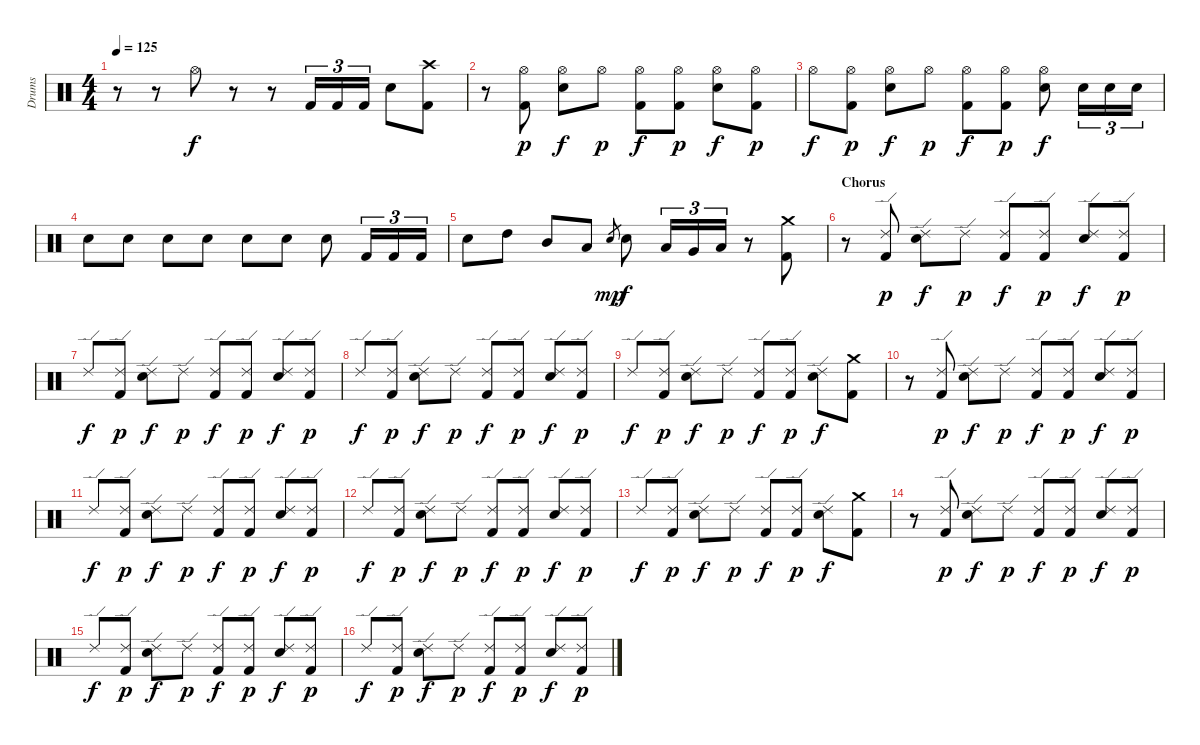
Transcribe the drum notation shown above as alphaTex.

\track ("Drums" "Drums") {instrument percussion}
\staff {score}
\articulation defaults
\ts (4 4)
\tempo 125
\clef neutral
\ks c
r.8{dy f} r.8 "Hi-Hat (open)".8 r.8 r.8 "Kick (hit) 2".16{tu (3 2)} "Kick (hit) 2".16{tu (3 2)} "Kick (hit) 2".16{tu (3 2)} "Snare (hit) 2".8 ("Crash high (hit)" "Kick (hit) 2").8 |
r.8 ("Hi-Hat (open)" "Kick (hit) 2").8{dy p} ("Hi-Hat (open)" "Snare (hit) 2").8{dy f} "Hi-Hat (open)".8{dy p} ("Hi-Hat (open)" "Kick (hit) 2").8{dy f} ("Hi-Hat (open)" "Kick (hit) 2").8{dy p} ("Hi-Hat (open)" "Snare (hit) 2").8{dy f} ("Hi-Hat (open)" "Kick (hit) 2").8{dy p} |
"Hi-Hat (open)".8{dy f} ("Hi-Hat (open)" "Kick (hit) 2").8{dy p} ("Hi-Hat (open)" "Snare (hit) 2").8{dy f} "Hi-Hat (open)".8{dy p} ("Hi-Hat (open)" "Kick (hit) 2").8{dy f} ("Hi-Hat (open)" "Kick (hit) 2").8{dy p} ("Hi-Hat (open)" "Snare (hit) 2").8{dy f} "Snare (hit) 2".16{tu (3 2)} "Snare (hit) 2".16{tu (3 2)} "Snare (hit) 2".16{tu (3 2)} |
"Snare (hit) 2".8 "Snare (hit) 2".8 "Snare (hit) 2".8 "Snare (hit) 2".8 "Snare (hit) 2".8 "Snare (hit) 2".8 "Snare (hit) 2".8 "Kick (hit) 2".16{tu (3 2)} "Kick (hit) 2".16{tu (3 2)} "Kick (hit) 2".16{tu (3 2)} |
"Snare (hit) 2".8 "High Tom (hit)".8 "Mid Tom (hit)".8 "Low Tom (hit)".8 "Snare (hit) 2".8{gr dy mp} "Snare (hit) 2".8{dy f} "Low Tom (hit)".16{tu (3 2)} "Very Low Tom (hit)".16{tu (3 2)} "Low Floor Tom (hit)".16{tu (3 2)} r.8 ("Crash medium (hit)" "Kick (hit) 2").8 |
\section ("" "Chorus")
r.8 ("Ride (edge) 2" "Kick (hit) 2").8{dy p} ("Ride (edge) 2" "Snare (hit) 2").8{dy f} "Ride (edge) 2".8{dy p} ("Ride (edge) 2" "Kick (hit) 2").8{dy f} ("Ride (edge) 2" "Kick (hit) 2").8{dy p} ("Ride (edge) 2" "Snare (hit) 2").8{dy f} ("Ride (edge) 2" "Kick (hit) 2").8{dy p} |
"Ride (edge) 2".8{dy f} ("Ride (edge) 2" "Kick (hit) 2").8{dy p} ("Ride (edge) 2" "Snare (hit) 2").8{dy f} "Ride (edge) 2".8{dy p} ("Ride (edge) 2" "Kick (hit) 2").8{dy f} ("Ride (edge) 2" "Kick (hit) 2").8{dy p} ("Ride (edge) 2" "Snare (hit) 2").8{dy f} ("Ride (edge) 2" "Kick (hit) 2").8{dy p} |
"Ride (edge) 2".8{dy f} ("Ride (edge) 2" "Kick (hit) 2").8{dy p} ("Ride (edge) 2" "Snare (hit) 2").8{dy f} "Ride (edge) 2".8{dy p} ("Ride (edge) 2" "Kick (hit) 2").8{dy f} ("Ride (edge) 2" "Kick (hit) 2").8{dy p} ("Ride (edge) 2" "Snare (hit) 2").8{dy f} ("Ride (edge) 2" "Kick (hit) 2").8{dy p} |
"Ride (edge) 2".8{dy f} ("Ride (edge) 2" "Kick (hit) 2").8{dy p} ("Ride (edge) 2" "Snare (hit) 2").8{dy f} "Ride (edge) 2".8{dy p} ("Ride (edge) 2" "Kick (hit) 2").8{dy f} ("Ride (edge) 2" "Kick (hit) 2").8{dy p} ("Ride (edge) 2" "Snare (hit) 2").8{dy f} ("Crash medium (hit)" "Kick (hit) 2").8 |
r.8 ("Ride (edge) 2" "Kick (hit) 2").8{dy p} ("Ride (edge) 2" "Snare (hit) 2").8{dy f} "Ride (edge) 2".8{dy p} ("Ride (edge) 2" "Kick (hit) 2").8{dy f} ("Ride (edge) 2" "Kick (hit) 2").8{dy p} ("Ride (edge) 2" "Snare (hit) 2").8{dy f} ("Ride (edge) 2" "Kick (hit) 2").8{dy p} |
"Ride (edge) 2".8{dy f} ("Ride (edge) 2" "Kick (hit) 2").8{dy p} ("Ride (edge) 2" "Snare (hit) 2").8{dy f} "Ride (edge) 2".8{dy p} ("Ride (edge) 2" "Kick (hit) 2").8{dy f} ("Ride (edge) 2" "Kick (hit) 2").8{dy p} ("Ride (edge) 2" "Snare (hit) 2").8{dy f} ("Ride (edge) 2" "Kick (hit) 2").8{dy p} |
"Ride (edge) 2".8{dy f} ("Ride (edge) 2" "Kick (hit) 2").8{dy p} ("Ride (edge) 2" "Snare (hit) 2").8{dy f} "Ride (edge) 2".8{dy p} ("Ride (edge) 2" "Kick (hit) 2").8{dy f} ("Ride (edge) 2" "Kick (hit) 2").8{dy p} ("Ride (edge) 2" "Snare (hit) 2").8{dy f} ("Ride (edge) 2" "Kick (hit) 2").8{dy p} |
"Ride (edge) 2".8{dy f} ("Ride (edge) 2" "Kick (hit) 2").8{dy p} ("Ride (edge) 2" "Snare (hit) 2").8{dy f} "Ride (edge) 2".8{dy p} ("Ride (edge) 2" "Kick (hit) 2").8{dy f} ("Ride (edge) 2" "Kick (hit) 2").8{dy p} ("Ride (edge) 2" "Snare (hit) 2").8{dy f} ("Crash medium (hit)" "Kick (hit) 2").8 |
r.8 ("Ride (edge) 2" "Kick (hit) 2").8{dy p} ("Ride (edge) 2" "Snare (hit) 2").8{dy f} "Ride (edge) 2".8{dy p} ("Ride (edge) 2" "Kick (hit) 2").8{dy f} ("Ride (edge) 2" "Kick (hit) 2").8{dy p} ("Ride (edge) 2" "Snare (hit) 2").8{dy f} ("Ride (edge) 2" "Kick (hit) 2").8{dy p} |
"Ride (edge) 2".8{dy f} ("Ride (edge) 2" "Kick (hit) 2").8{dy p} ("Ride (edge) 2" "Snare (hit) 2").8{dy f} "Ride (edge) 2".8{dy p} ("Ride (edge) 2" "Kick (hit) 2").8{dy f} ("Ride (edge) 2" "Kick (hit) 2").8{dy p} ("Ride (edge) 2" "Snare (hit) 2").8{dy f} ("Ride (edge) 2" "Kick (hit) 2").8{dy p} |
"Ride (edge) 2".8{dy f} ("Ride (edge) 2" "Kick (hit) 2").8{dy p} ("Ride (edge) 2" "Snare (hit) 2").8{dy f} "Ride (edge) 2".8{dy p} ("Ride (edge) 2" "Kick (hit) 2").8{dy f} ("Ride (edge) 2" "Kick (hit) 2").8{dy p} ("Ride (edge) 2" "Snare (hit) 2").8{dy f} ("Ride (edge) 2" "Kick (hit) 2").8{dy p}
